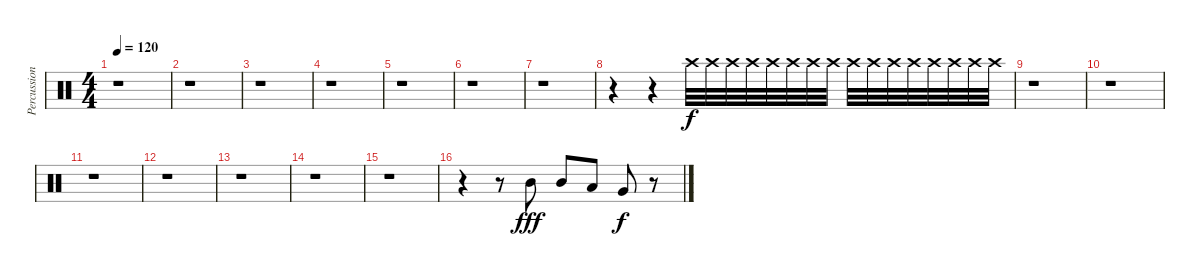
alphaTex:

\track ("Percussion" "Percussion") {instrument percussion}
\staff {score}
\articulation defaults
\ts (4 4)
\tempo 120
\clef neutral
\ks c
r.1{dy f} |
r.1 |
r.1 |
r.1 |
r.1 |
r.1 |
r.1 |
r.4 r.4 "Crash high (hit)".32{volume 1} "Crash high (hit)".32 "Crash high (hit)".32{volume 2} "Crash high (hit)".32 "Crash high (hit)".32{volume 3} "Crash high (hit)".32 "Crash high (hit)".32{volume 5} "Crash high (hit)".32 "Crash high (hit)".32{volume 7} "Crash high (hit)".32 "Crash high (hit)".32{volume 9} "Crash high (hit)".32 "Crash high (hit)".32{volume 11} "Crash high (hit)".32 "Crash high (hit)".32{volume 13} "Crash high (hit)".32 |
r.1 |
r.1 |
r.1 |
r.1 |
r.1 |
r.1 |
r.1 |
r.4 r.8 "Mid Tom (hit)".8{dy fff volume 14} "Mid Tom (hit)".8 "Low Tom (hit)".8 "Very Low Tom (hit)".8{dy f} r.8
